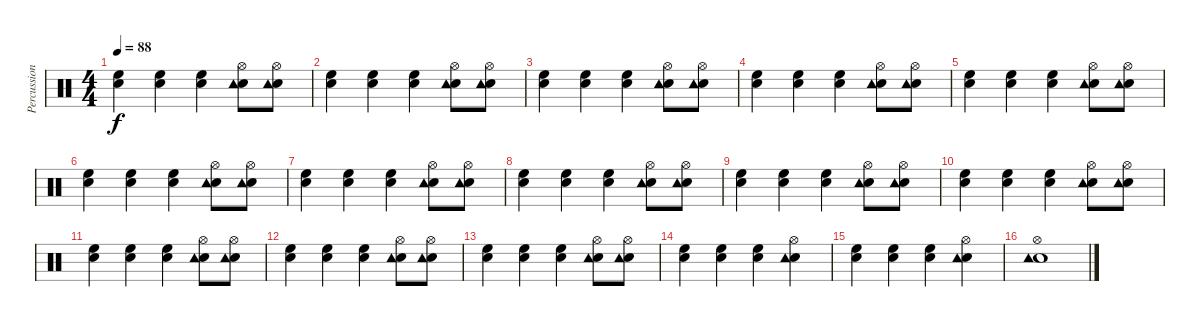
\track ("Percussion" "Percussion") {instrument percussion}
\staff {score}
\articulation defaults
\ts (4 4)
\tempo 88
\clef neutral
\ks c
("Electric Snare (hit)" "High Floor Tom (hit)").4{dy f} ("Electric Snare (hit)" "High Floor Tom (hit)").4 ("Electric Snare (hit)" "High Floor Tom (hit)").4 ("Electric Snare (hit)" "Tambourine (hit)" "Hi-Hat (open)").8 ("Electric Snare (hit)" "Tambourine (hit)" "Hi-Hat (open)").8 |
("Electric Snare (hit)" "High Floor Tom (hit)").4 ("Electric Snare (hit)" "High Floor Tom (hit)").4 ("Electric Snare (hit)" "High Floor Tom (hit)").4 ("Electric Snare (hit)" "Tambourine (hit)" "Hi-Hat (open)").8 ("Electric Snare (hit)" "Tambourine (hit)" "Hi-Hat (open)").8 |
("Electric Snare (hit)" "High Floor Tom (hit)").4 ("Electric Snare (hit)" "High Floor Tom (hit)").4 ("Electric Snare (hit)" "High Floor Tom (hit)").4 ("Electric Snare (hit)" "Tambourine (hit)" "Hi-Hat (open)").8 ("Electric Snare (hit)" "Tambourine (hit)" "Hi-Hat (open)").8 |
("Electric Snare (hit)" "High Floor Tom (hit)").4 ("Electric Snare (hit)" "High Floor Tom (hit)").4 ("Electric Snare (hit)" "High Floor Tom (hit)").4 ("Electric Snare (hit)" "Tambourine (hit)" "Hi-Hat (open)").8 ("Electric Snare (hit)" "Tambourine (hit)" "Hi-Hat (open)").8 |
("Electric Snare (hit)" "High Floor Tom (hit)").4 ("Electric Snare (hit)" "High Floor Tom (hit)").4 ("Electric Snare (hit)" "High Floor Tom (hit)").4 ("Electric Snare (hit)" "Tambourine (hit)" "Hi-Hat (open)").8 ("Electric Snare (hit)" "Tambourine (hit)" "Hi-Hat (open)").8 |
("Electric Snare (hit)" "High Floor Tom (hit)").4 ("Electric Snare (hit)" "High Floor Tom (hit)").4 ("Electric Snare (hit)" "High Floor Tom (hit)").4 ("Electric Snare (hit)" "Tambourine (hit)" "Hi-Hat (open)").8 ("Electric Snare (hit)" "Tambourine (hit)" "Hi-Hat (open)").8 |
("Electric Snare (hit)" "High Floor Tom (hit)").4 ("Electric Snare (hit)" "High Floor Tom (hit)").4 ("Electric Snare (hit)" "High Floor Tom (hit)").4 ("Electric Snare (hit)" "Tambourine (hit)" "Hi-Hat (open)").8 ("Electric Snare (hit)" "Tambourine (hit)" "Hi-Hat (open)").8 |
("Electric Snare (hit)" "High Floor Tom (hit)").4 ("Electric Snare (hit)" "High Floor Tom (hit)").4 ("Electric Snare (hit)" "High Floor Tom (hit)").4 ("Electric Snare (hit)" "Tambourine (hit)" "Hi-Hat (open)").8 ("Electric Snare (hit)" "Tambourine (hit)" "Hi-Hat (open)").8 |
("Electric Snare (hit)" "High Floor Tom (hit)").4 ("Electric Snare (hit)" "High Floor Tom (hit)").4 ("Electric Snare (hit)" "High Floor Tom (hit)").4 ("Electric Snare (hit)" "Tambourine (hit)" "Hi-Hat (open)").8 ("Electric Snare (hit)" "Tambourine (hit)" "Hi-Hat (open)").8 |
("Electric Snare (hit)" "High Floor Tom (hit)").4 ("Electric Snare (hit)" "High Floor Tom (hit)").4 ("Electric Snare (hit)" "High Floor Tom (hit)").4 ("Electric Snare (hit)" "Tambourine (hit)" "Hi-Hat (open)").8 ("Electric Snare (hit)" "Tambourine (hit)" "Hi-Hat (open)").8 |
("Electric Snare (hit)" "High Floor Tom (hit)").4 ("Electric Snare (hit)" "High Floor Tom (hit)").4 ("Electric Snare (hit)" "High Floor Tom (hit)").4 ("Electric Snare (hit)" "Tambourine (hit)" "Hi-Hat (open)").8 ("Electric Snare (hit)" "Tambourine (hit)" "Hi-Hat (open)").8 |
("Electric Snare (hit)" "High Floor Tom (hit)").4 ("Electric Snare (hit)" "High Floor Tom (hit)").4 ("Electric Snare (hit)" "High Floor Tom (hit)").4 ("Electric Snare (hit)" "Tambourine (hit)" "Hi-Hat (open)").8 ("Electric Snare (hit)" "Tambourine (hit)" "Hi-Hat (open)").8 |
("Electric Snare (hit)" "High Floor Tom (hit)").4 ("Electric Snare (hit)" "High Floor Tom (hit)").4 ("Electric Snare (hit)" "High Floor Tom (hit)").4 ("Electric Snare (hit)" "Tambourine (hit)" "Hi-Hat (open)").8 ("Electric Snare (hit)" "Tambourine (hit)" "Hi-Hat (open)").8 |
("Electric Snare (hit)" "High Floor Tom (hit)").4 ("Electric Snare (hit)" "High Floor Tom (hit)").4 ("Electric Snare (hit)" "High Floor Tom (hit)").4 ("Electric Snare (hit)" "Tambourine (hit)" "Hi-Hat (open)").4 |
("Electric Snare (hit)" "High Floor Tom (hit)").4 ("Electric Snare (hit)" "High Floor Tom (hit)").4 ("Electric Snare (hit)" "High Floor Tom (hit)").4 ("Electric Snare (hit)" "Tambourine (hit)" "Hi-Hat (open)").4 |
("Electric Snare (hit)" "Tambourine (hit)" "Hi-Hat (open)").1
